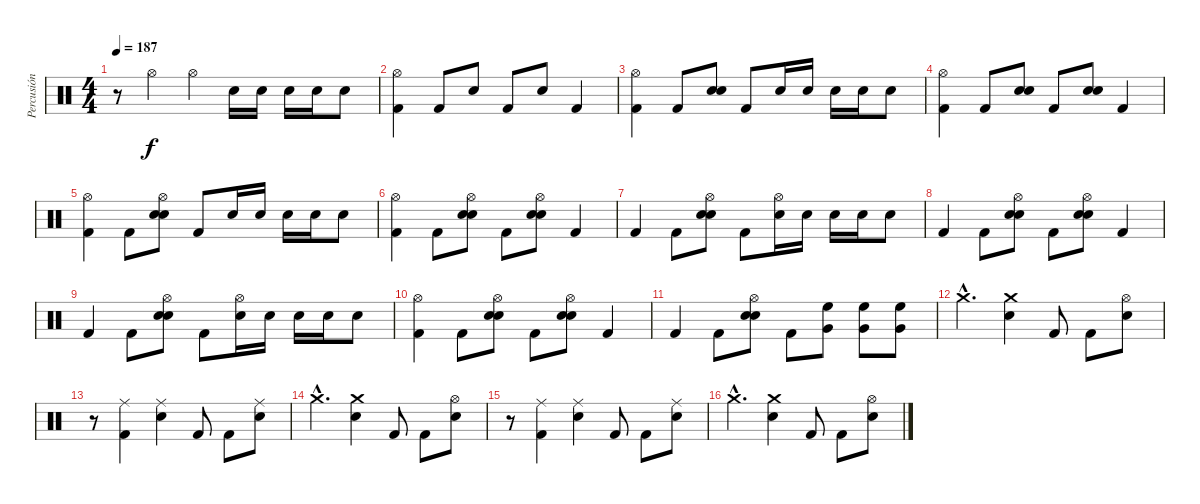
\track ("Percusión" "Percusión") {instrument percussion}
\staff {score}
\articulation defaults
\ts (4 4)
\tempo 187
\clef neutral
\ks c
r.8{dy f} "Hi-Hat (open)".4 "Hi-Hat (open)".4 "Snare (hit) 2".16 "Snare (hit) 2".16 "Snare (hit) 2".16 "Snare (hit) 2".16 "Snare (hit) 2".8 |
("Hi-Hat (open)" "Kick (hit) 2").4 "Kick (hit) 2".8 "Snare (hit) 2".8 "Kick (hit) 2".8 "Snare (hit) 2".8 "Kick (hit) 2".4 |
("Hi-Hat (open)" "Kick (hit) 2").4 "Kick (hit) 2".8 ("Snare (hit) 2" "Snare (hit) 2").8 "Kick (hit) 2".8 "Snare (hit) 2".16 "Snare (hit) 2".16 "Snare (hit) 2".16 "Snare (hit) 2".16 "Snare (hit) 2".8 |
("Hi-Hat (open)" "Kick (hit) 2").4 "Kick (hit) 2".8 ("Snare (hit) 2" "Snare (hit) 2").8 "Kick (hit) 2".8 ("Snare (hit) 2" "Snare (hit) 2").8 "Kick (hit) 2".4 |
("Hi-Hat (open)" "Kick (hit) 2").4 "Kick (hit) 2".8 ("Hi-Hat (open)" "Electric Snare (hit)" "Electric Snare (hit)").8 "Kick (hit) 2".8 "Snare (hit) 2".16 "Snare (hit) 2".16 "Snare (hit) 2".16 "Snare (hit) 2".16 "Snare (hit) 2".8 |
("Hi-Hat (open)" "Kick (hit) 2").4 "Kick (hit) 2".8 ("Hi-Hat (open)" "Snare (hit) 2" "Snare (hit) 2").8 "Kick (hit) 2".8 ("Hi-Hat (open)" "Snare (hit) 2" "Snare (hit) 2").8 "Kick (hit) 2".4 |
"Kick (hit) 2".4 "Kick (hit) 2".8 ("Hi-Hat (open)" "Electric Snare (hit)" "Electric Snare (hit)").8 "Kick (hit) 2".8 ("Hi-Hat (open)" "Snare (hit) 2").16 "Snare (hit) 2".16 "Snare (hit) 2".16 "Snare (hit) 2".16 "Snare (hit) 2".8 |
"Kick (hit) 2".4 "Kick (hit) 2".8 ("Hi-Hat (open)" "Snare (hit) 2" "Snare (hit) 2").8 "Kick (hit) 2".8 ("Hi-Hat (open)" "Snare (hit) 2" "Snare (hit) 2").8 "Kick (hit) 2".4 |
"Kick (hit) 2".4 "Kick (hit) 2".8 ("Hi-Hat (open)" "Electric Snare (hit)" "Electric Snare (hit)").8 "Kick (hit) 2".8 ("Hi-Hat (open)" "Snare (hit) 2").16 "Snare (hit) 2".16 "Snare (hit) 2".16 "Snare (hit) 2".16 "Snare (hit) 2".8 |
("Hi-Hat (open)" "Kick (hit) 2").4 "Kick (hit) 2".8 ("Hi-Hat (open)" "Snare (hit) 2" "Snare (hit) 2").8 "Kick (hit) 2".8 ("Hi-Hat (open)" "Snare (hit) 2" "Snare (hit) 2").8 "Kick (hit) 2".4 |
"Kick (hit) 2".4 "Kick (hit) 2".8 ("Hi-Hat (open)" "Electric Snare (hit)" "Electric Snare (hit)").8 "Kick (hit) 2".8 ("Very Low Tom (hit)" "High Floor Tom (hit)").8 ("Very Low Tom (hit)" "High Floor Tom (hit)").8 ("Very Low Tom (hit)" "High Floor Tom (hit)").8 |
"Crash medium (hit)"{hac}.4{d} ("Crash medium (hit)" "Snare (hit) 2").4 "Kick (hit) 2".8 "Kick (hit) 2".8 ("Hi-Hat (open)" "Snare (hit) 2").8 |
r.8 ("Ride (middle)" "Kick (hit) 2").4 ("Ride (middle)" "Snare (hit) 2").4 "Kick (hit) 2".8 "Kick (hit) 2".8 ("Ride (middle)" "Snare (hit) 2").8 |
"Crash medium (hit)"{hac}.4{d} ("Crash medium (hit)" "Snare (hit) 2").4 "Kick (hit) 2".8 "Kick (hit) 2".8 ("Hi-Hat (open)" "Snare (hit) 2").8 |
r.8 ("Ride (middle)" "Kick (hit) 2").4 ("Ride (middle)" "Snare (hit) 2").4 "Kick (hit) 2".8 "Kick (hit) 2".8 ("Ride (middle)" "Snare (hit) 2").8 |
"Crash medium (hit)"{hac}.4{d} ("Crash medium (hit)" "Snare (hit) 2").4 "Kick (hit) 2".8 "Kick (hit) 2".8 ("Hi-Hat (open)" "Snare (hit) 2").8
